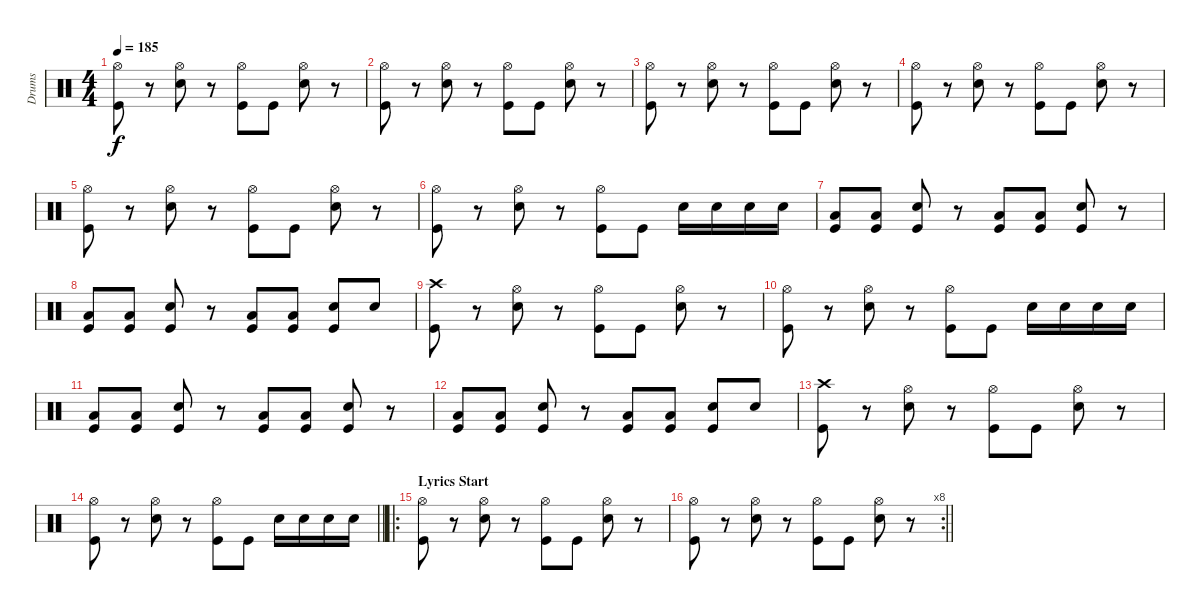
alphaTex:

\track ("Drums" "Drums") {instrument percussion}
\staff {score}
\articulation defaults
\ts (4 4)
\tempo 185
\clef neutral
\ks c
("Hi-Hat (open)" "Kick (hit)").8{dy f} r.8 ("Hi-Hat (open)" "Electric Snare (hit)").8 r.8 ("Hi-Hat (open)" "Kick (hit)").8 "Kick (hit)".8 ("Hi-Hat (open)" "Electric Snare (hit)").8 r.8 |
("Hi-Hat (open)" "Kick (hit)").8 r.8 ("Hi-Hat (open)" "Electric Snare (hit)").8 r.8 ("Hi-Hat (open)" "Kick (hit)").8 "Kick (hit)".8 ("Hi-Hat (open)" "Electric Snare (hit)").8 r.8 |
("Hi-Hat (open)" "Kick (hit)").8 r.8 ("Hi-Hat (open)" "Electric Snare (hit)").8 r.8 ("Hi-Hat (open)" "Kick (hit)").8 "Kick (hit)".8 ("Hi-Hat (open)" "Electric Snare (hit)").8 r.8 |
("Hi-Hat (open)" "Kick (hit)").8 r.8 ("Hi-Hat (open)" "Electric Snare (hit)").8 r.8 ("Hi-Hat (open)" "Kick (hit)").8 "Kick (hit)".8 ("Hi-Hat (open)" "Electric Snare (hit)").8 r.8 |
("Hi-Hat (open)" "Kick (hit)").8 r.8 ("Hi-Hat (open)" "Electric Snare (hit)").8 r.8 ("Hi-Hat (open)" "Kick (hit)").8 "Kick (hit)".8 ("Hi-Hat (open)" "Electric Snare (hit)").8 r.8 |
("Hi-Hat (open)" "Kick (hit)").8 r.8 ("Hi-Hat (open)" "Electric Snare (hit)").8 r.8 ("Hi-Hat (open)" "Kick (hit)").8 "Kick (hit)".8 "Electric Snare (hit)".16 "Electric Snare (hit)".16 "Electric Snare (hit)".16 "Electric Snare (hit)".16 |
("Low Floor Tom (hit)" "Kick (hit)").8 ("Low Floor Tom (hit)" "Kick (hit)").8 ("Electric Snare (hit)" "Kick (hit)").8 r.8 ("Low Floor Tom (hit)" "Kick (hit)").8 ("Low Floor Tom (hit)" "Kick (hit)").8 ("Electric Snare (hit)" "Kick (hit)").8 r.8 |
("Low Floor Tom (hit)" "Kick (hit)").8 ("Low Floor Tom (hit)" "Kick (hit)").8 ("Electric Snare (hit)" "Kick (hit)").8 r.8 ("Low Floor Tom (hit)" "Kick (hit)").8 ("Low Floor Tom (hit)" "Kick (hit)").8 ("Electric Snare (hit)" "Kick (hit)").8 "Electric Snare (hit)".8 |
("Crash high (hit)" "Kick (hit)").8 r.8 ("Hi-Hat (open)" "Electric Snare (hit)").8 r.8 ("Hi-Hat (open)" "Kick (hit)").8 "Kick (hit)".8 ("Hi-Hat (open)" "Electric Snare (hit)").8 r.8 |
("Hi-Hat (open)" "Kick (hit)").8 r.8 ("Hi-Hat (open)" "Electric Snare (hit)").8 r.8 ("Hi-Hat (open)" "Kick (hit)").8 "Kick (hit)".8 "Electric Snare (hit)".16 "Electric Snare (hit)".16 "Electric Snare (hit)".16 "Electric Snare (hit)".16 |
("Low Floor Tom (hit)" "Kick (hit)").8 ("Low Floor Tom (hit)" "Kick (hit)").8 ("Electric Snare (hit)" "Kick (hit)").8 r.8 ("Low Floor Tom (hit)" "Kick (hit)").8 ("Low Floor Tom (hit)" "Kick (hit)").8 ("Electric Snare (hit)" "Kick (hit)").8 r.8 |
("Low Floor Tom (hit)" "Kick (hit)").8 ("Low Floor Tom (hit)" "Kick (hit)").8 ("Electric Snare (hit)" "Kick (hit)").8 r.8 ("Low Floor Tom (hit)" "Kick (hit)").8 ("Low Floor Tom (hit)" "Kick (hit)").8 ("Electric Snare (hit)" "Kick (hit)").8 "Electric Snare (hit)".8 |
("Crash high (hit)" "Kick (hit)").8 r.8 ("Hi-Hat (open)" "Electric Snare (hit)").8 r.8 ("Hi-Hat (open)" "Kick (hit)").8 "Kick (hit)".8 ("Hi-Hat (open)" "Electric Snare (hit)").8 r.8 |
\barLineRight lightlight
("Hi-Hat (open)" "Kick (hit)").8 r.8 ("Hi-Hat (open)" "Electric Snare (hit)").8 r.8 ("Hi-Hat (open)" "Kick (hit)").8 "Kick (hit)".8 "Electric Snare (hit)".16 "Electric Snare (hit)".16 "Electric Snare (hit)".16 "Electric Snare (hit)".16 |
\ro
\section ("" "Lyrics Start")
("Hi-Hat (open)" "Kick (hit)").8 r.8 ("Hi-Hat (open)" "Electric Snare (hit)").8 r.8 ("Hi-Hat (open)" "Kick (hit)").8 "Kick (hit)".8 ("Hi-Hat (open)" "Electric Snare (hit)").8 r.8 |
\rc 8
\barLineRight lightlight
("Hi-Hat (open)" "Kick (hit)").8 r.8 ("Hi-Hat (open)" "Electric Snare (hit)").8 r.8 ("Hi-Hat (open)" "Kick (hit)").8 "Kick (hit)".8 ("Hi-Hat (open)" "Electric Snare (hit)").8 r.8
